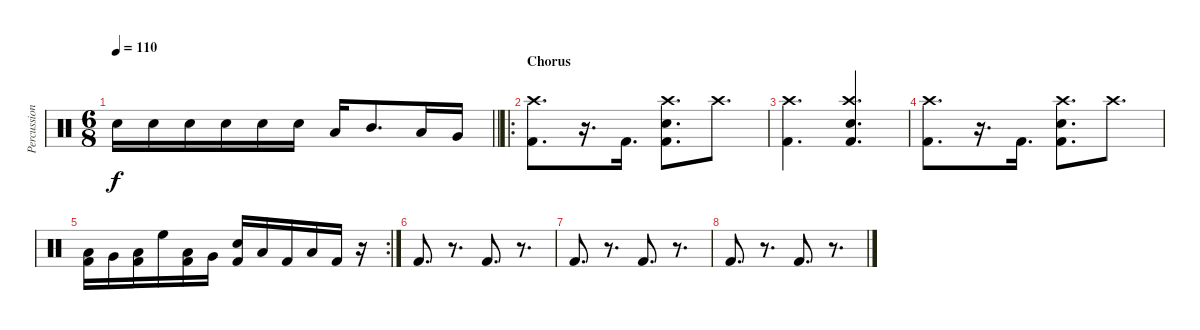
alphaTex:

\track ("Percussion" "Percussion") {instrument percussion}
\staff {score}
\articulation defaults
\ts (6 8)
\tempo 110
\clef neutral
\barLineRight lightlight
\ks c "Electric Snare (hit)".16{dy f} "Electric Snare (hit)".16 "Electric Snare (hit)".16 "Electric Snare (hit)".16 "Electric Snare (hit)".16 "Electric Snare (hit)".16 "Low Floor Tom (hit)".16 "Mid Tom (hit)".8{d} "Low Tom (hit)".16 "Very Low Tom (hit)".16
|
\ro
\section ("" "Chorus")
("Crash high (hit)" "Kick (hit) 2").8{d} r.16{d} "Kick (hit) 2".16{d} ("Crash high (hit)" "Electric Snare (hit)" "Kick (hit) 2").8{d} "Crash high (hit)".8{d} |
("Crash high (hit)" "Kick (hit) 2").4{d} ("Crash high (hit)" "Electric Snare (hit)" "Kick (hit) 2").4{d} |
("Crash high (hit)" "Kick (hit) 2").8{d} r.16{d} "Kick (hit) 2".16{d} ("Crash high (hit)" "Electric Snare (hit)" "Kick (hit) 2").8{d} "Crash high (hit)".8{d} |
\rc 2
("Low Tom (hit)" "Kick (hit) 2").16 "Very Low Tom (hit)".16 ("Low Floor Tom (hit)" "Kick (hit) 2").16 "High Floor Tom (hit)".16 ("Low Tom (hit)" "Kick (hit) 2").16 "Very Low Tom (hit)".16 ("Electric Snare (hit)" "Kick (hit) 2").16 "Low Floor Tom (hit)".16 "Kick (hit) 2".16 "Low Tom (hit)".16 "Kick (hit) 2".16 r.16 |
"Kick (hit) 2".8{d} r.8{d} "Kick (hit) 2".8{d} r.8{d} |
"Kick (hit) 2".8{d} r.8{d} "Kick (hit) 2".8{d} r.8{d} |
"Kick (hit) 2".8{d} r.8{d} "Kick (hit) 2".8{d} r.8{d}
